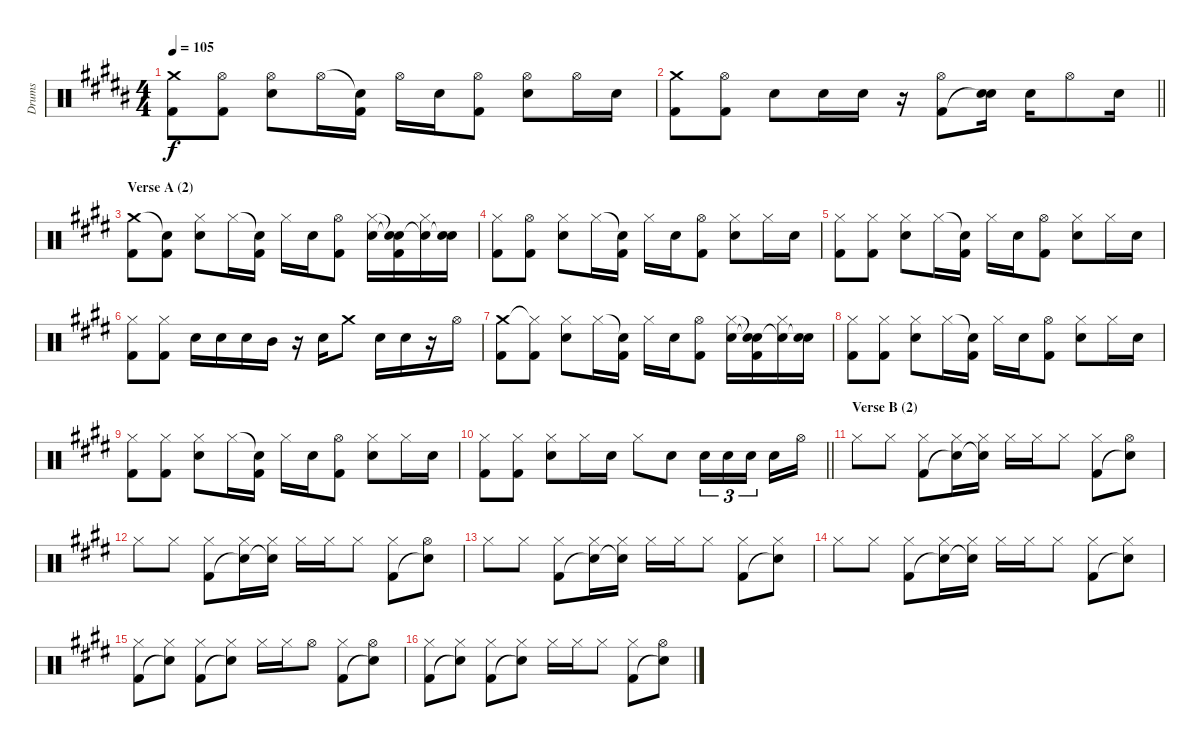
\track ("Drums" "Drums") {instrument percussion}
\staff {score}
\articulation defaults
\ts (4 4)
\tempo 105
\clef neutral
\ks g#minor
("Crash medium (hit)" "Kick (hit) 2").8{dy f} ("Hi-Hat (open)" "Kick (hit) 2").8 ("Hi-Hat (open)" "Electric Snare (hit)").8 "Hi-Hat (open)".16 ("Snare (hit)"{t} "Kick (hit) 2").16 "Hi-Hat (open)".16 "Electric Snare (hit)".16 ("Hi-Hat (open)" "Kick (hit) 2").8 ("Hi-Hat (open)" "Electric Snare (hit)").8 "Hi-Hat (open)".16 "Electric Snare (hit)".16 |
\barLineRight lightlight
("Crash medium (hit)" "Kick (hit) 2").8 ("Hi-Hat (open)" "Kick (hit) 2").8 "Electric Snare (hit)".8 "Electric Snare (hit)".16 "Electric Snare (hit)".16 r.16 ("Hi-Hat (open)" "Kick (hit) 2").8 ("Electric Snare (hit)" "Snare (hit)"{t}).16 "Electric Snare (hit)".16 "Hi-Hat (open)".8 "Electric Snare (hit)".16 |
\section ("" "Verse A (2)")
\ks e
("Crash medium (hit)" "Kick (hit) 2").8 ("Snare (hit)"{t} "Kick (hit) 2").8 ("Hi-Hat (closed)" "Electric Snare (hit)").8 "Hi-Hat (closed)".16 ("Snare (hit)"{t} "Kick (hit) 2").16 "Hi-Hat (closed)".16 "Electric Snare (hit)".16 ("Hi-Hat (open)" "Kick (hit) 2").8 ("Hi-Hat (closed)" "Electric Snare (hit)").16 ("Snare (hit)"{t} "Snare (hit)"{t} "Kick (hit) 2").16 ("Hi-Hat (closed)" "Snare (hit)"{t}).16 ("Electric Snare (hit)" "Snare (hit)"{t}).16 |
("Hi-Hat (closed)" "Kick (hit) 2").8 ("Hi-Hat (open)" "Kick (hit) 2").8 ("Hi-Hat (closed)" "Electric Snare (hit)").8 "Hi-Hat (closed)".16 ("Snare (hit)"{t} "Kick (hit) 2").16 "Hi-Hat (closed)".16 "Electric Snare (hit)".16 ("Hi-Hat (open)" "Kick (hit) 2").8 ("Hi-Hat (closed)" "Electric Snare (hit)").8 "Hi-Hat (closed)".16 "Electric Snare (hit)".16 |
("Hi-Hat (closed)" "Kick (hit) 2").8 ("Hi-Hat (closed)" "Kick (hit) 2").8 ("Hi-Hat (closed)" "Electric Snare (hit)").8 "Hi-Hat (closed)".16 ("Snare (hit)"{t} "Kick (hit) 2").16 "Hi-Hat (closed)".16 "Electric Snare (hit)".16 ("Hi-Hat (open)" "Kick (hit) 2").8 ("Hi-Hat (closed)" "Electric Snare (hit)").8 "Hi-Hat (closed)".16 "Electric Snare (hit)".16 |
("Hi-Hat (closed)" "Kick (hit) 2").8 ("Hi-Hat (closed)" "Kick (hit) 2").8 "Electric Snare (hit)".16 "Electric Snare (hit)".16 "Electric Snare (hit)".16 "Mid Tom (hit)".16 r.16 "Electric Snare (hit)".16 "Crash medium (hit)".8 "Electric Snare (hit)".16 "Electric Snare (hit)".16 r.16 "Hi-Hat (open)".16 |
("Crash medium (hit)" "Kick (hit) 2").8 ("Hi-Hat (closed)"{t} "Kick (hit) 2").8 ("Hi-Hat (closed)" "Electric Snare (hit)").8 "Hi-Hat (closed)".16 ("Snare (hit)"{t} "Kick (hit) 2").16 "Hi-Hat (closed)".16 "Electric Snare (hit)".16 ("Hi-Hat (open)" "Kick (hit) 2").8 ("Hi-Hat (closed)" "Electric Snare (hit)").16 ("Snare (hit)"{t} "Snare (hit)"{t} "Kick (hit) 2").16 ("Hi-Hat (closed)" "Snare (hit)"{t}).16 ("Electric Snare (hit)" "Snare (hit)"{t}).16 |
("Hi-Hat (closed)" "Kick (hit) 2").8 ("Hi-Hat (closed)" "Kick (hit) 2").8 ("Hi-Hat (closed)" "Electric Snare (hit)").8 "Hi-Hat (closed)".16 ("Snare (hit)"{t} "Kick (hit) 2").16 "Hi-Hat (closed)".16 "Electric Snare (hit)".16 ("Hi-Hat (open)" "Kick (hit) 2").8 ("Hi-Hat (closed)" "Electric Snare (hit)").8 "Hi-Hat (closed)".16 "Electric Snare (hit)".16 |
("Hi-Hat (closed)" "Kick (hit) 2").8 ("Hi-Hat (closed)" "Kick (hit) 2").8 ("Hi-Hat (closed)" "Electric Snare (hit)").8 "Hi-Hat (closed)".16 ("Snare (hit)"{t} "Kick (hit) 2").16 "Hi-Hat (closed)".16 "Electric Snare (hit)".16 ("Hi-Hat (open)" "Kick (hit) 2").8 ("Hi-Hat (closed)" "Electric Snare (hit)").8 "Hi-Hat (closed)".16 "Electric Snare (hit)".16 |
\barLineRight lightlight
("Hi-Hat (closed)" "Kick (hit) 2").8 ("Hi-Hat (closed)" "Kick (hit) 2").8 ("Hi-Hat (closed)" "Electric Snare (hit)").8 "Hi-Hat (closed)".16 "Electric Snare (hit)".16 "Hi-Hat (closed)".8 "Electric Snare (hit)".8 "Electric Snare (hit)".16{tu (3 2)} "Electric Snare (hit)".16{tu (3 2)} "Electric Snare (hit)".16{tu (3 2)} "Electric Snare (hit)".16 "Hi-Hat (open)".16 |
\section ("" "Verse B (2)")
"Hi-Hat (closed)".8 "Hi-Hat (closed)".8 ("Hi-Hat (closed)" "Kick (hit) 2").8 ("Hi-Hat (closed)" "Snare (hit)"{t}).16 ("Hi-Hat (closed)" "Snare (hit)"{t}).16 "Hi-Hat (closed)".16 "Hi-Hat (closed)".16 "Hi-Hat (closed)".8 ("Hi-Hat (closed)" "Kick (hit) 2").8 ("Hi-Hat (open)" "Snare (hit)"{t}).8 |
"Hi-Hat (closed)".8 "Hi-Hat (closed)".8 ("Hi-Hat (closed)" "Kick (hit) 2").8 ("Hi-Hat (closed)" "Snare (hit)"{t}).16 ("Hi-Hat (closed)" "Snare (hit)"{t}).16 "Hi-Hat (closed)".16 "Hi-Hat (closed)".16 "Hi-Hat (closed)".8 ("Hi-Hat (closed)" "Kick (hit) 2").8 ("Hi-Hat (open)" "Snare (hit)"{t}).8 |
"Hi-Hat (closed)".8 "Hi-Hat (closed)".8 ("Hi-Hat (closed)" "Kick (hit) 2").8 ("Hi-Hat (closed)" "Snare (hit)"{t}).16 ("Hi-Hat (closed)" "Snare (hit)"{t}).16 "Hi-Hat (closed)".16 "Hi-Hat (closed)".16 "Hi-Hat (closed)".8 ("Hi-Hat (closed)" "Kick (hit) 2").8 ("Hi-Hat (closed)" "Snare (hit)"{t}).8 |
"Hi-Hat (closed)".8 "Hi-Hat (closed)".8 ("Hi-Hat (closed)" "Kick (hit) 2").8 ("Hi-Hat (closed)" "Snare (hit)"{t}).16 ("Hi-Hat (closed)" "Snare (hit)"{t}).16 "Hi-Hat (closed)".16 "Hi-Hat (closed)".16 "Hi-Hat (closed)".8 ("Hi-Hat (closed)" "Kick (hit) 2").8 ("Hi-Hat (closed)" "Snare (hit)"{t}).8 |
("Hi-Hat (closed)" "Kick (hit) 2").8 ("Hi-Hat (closed)" "Snare (hit)"{t}).8 ("Hi-Hat (closed)" "Kick (hit) 2").8 ("Hi-Hat (closed)" "Snare (hit)"{t}).8 "Hi-Hat (closed)".16 "Hi-Hat (closed)".16 "Hi-Hat (open)".8 ("Hi-Hat (closed)" "Kick (hit) 2").8 ("Hi-Hat (open)" "Snare (hit)"{t}).8 |
("Hi-Hat (closed)" "Kick (hit) 2").8 ("Hi-Hat (closed)" "Snare (hit)"{t}).8 ("Hi-Hat (closed)" "Kick (hit) 2").8 ("Hi-Hat (closed)" "Snare (hit)"{t}).8 "Hi-Hat (closed)".16 "Hi-Hat (closed)".16 "Hi-Hat (closed)".8 ("Hi-Hat (closed)" "Kick (hit) 2").8 ("Hi-Hat (open)" "Snare (hit)"{t}).8
